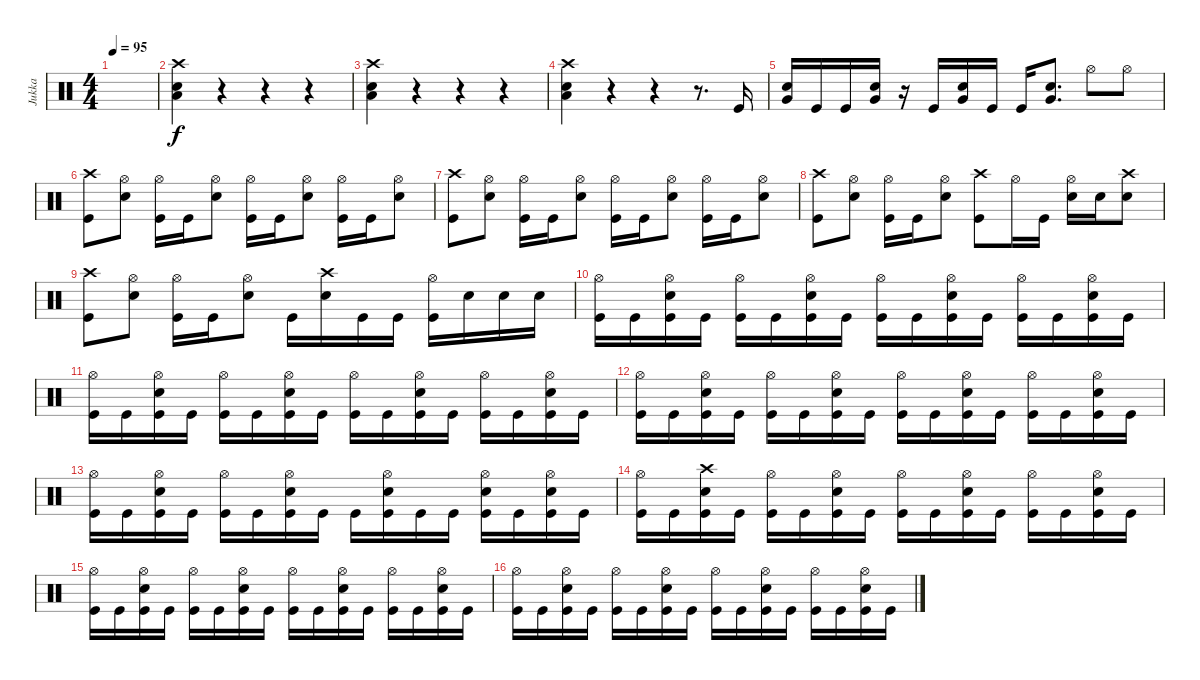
\track ("Jukka" "Jukka") {instrument percussion}
\staff {score}
\articulation defaults
\ts (4 4)
\tempo 95
\clef neutral
\ks c
|
("Crash high (hit)" "Low Floor Tom (hit)" "Electric Snare (hit)").4 r.4 r.4 r.4 |
("Crash high (hit)" "Low Floor Tom (hit)" "Electric Snare (hit)").4 r.4 r.4 r.4 |
("Crash high (hit)" "Low Floor Tom (hit)" "Electric Snare (hit)").4 r.4 r.4 r.8{d} "Kick (hit)".16 |
("Very Low Tom (hit)" "Electric Snare (hit)").16 "Kick (hit)".16 "Kick (hit)".16 ("Very Low Tom (hit)" "Electric Snare (hit)").16 r.16 "Kick (hit)".16 ("Very Low Tom (hit)" "Electric Snare (hit)").16 "Kick (hit)".16 "Kick (hit)".16 ("Very Low Tom (hit)" "Electric Snare (hit)").8{d} "Hi-Hat (open)".8 "Hi-Hat (open)".8 |
("Crash high (hit)" "Kick (hit)").8 ("Hi-Hat (open)" "Electric Snare (hit)").8 ("Hi-Hat (open)" "Kick (hit)").16 "Kick (hit)".16 ("Hi-Hat (open)" "Electric Snare (hit)").8 ("Hi-Hat (open)" "Kick (hit)").16 "Kick (hit)".16 ("Hi-Hat (open)" "Electric Snare (hit)").8 ("Hi-Hat (open)" "Kick (hit)").16 "Kick (hit)".16 ("Hi-Hat (open)" "Electric Snare (hit)").8 |
("Crash high (hit)" "Kick (hit)").8 ("Hi-Hat (open)" "Electric Snare (hit)").8 ("Hi-Hat (open)" "Kick (hit)").16 "Kick (hit)".16 ("Hi-Hat (open)" "Electric Snare (hit)").8 ("Hi-Hat (open)" "Kick (hit)").16 "Kick (hit)".16 ("Hi-Hat (open)" "Electric Snare (hit)").8 ("Hi-Hat (open)" "Kick (hit)").16 "Kick (hit)".16 ("Hi-Hat (open)" "Electric Snare (hit)").8 |
("Crash high (hit)" "Kick (hit)").8 ("Hi-Hat (open)" "Electric Snare (hit)").8 ("Hi-Hat (open)" "Kick (hit)").16 "Kick (hit)".16 ("Hi-Hat (open)" "Electric Snare (hit)").8 ("Crash high (hit)" "Kick (hit)").8 "Hi-Hat (open)".16 "Kick (hit)".16 ("Hi-Hat (open)" "Electric Snare (hit)").16 "Electric Snare (hit)".16 ("Crash high (hit)" "Electric Snare (hit)").8 |
("Crash high (hit)" "Kick (hit)").8 ("Hi-Hat (open)" "Electric Snare (hit)").8 ("Hi-Hat (open)" "Kick (hit)").16 "Kick (hit)".16 ("Hi-Hat (open)" "Electric Snare (hit)").8 "Kick (hit)".16 ("Crash high (hit)" "Electric Snare (hit)").16 "Kick (hit)".16 "Kick (hit)".16 ("Hi-Hat (open)" "Kick (hit)").16 "Electric Snare (hit)".16 "Electric Snare (hit)".16 "Electric Snare (hit)".16 |
("Hi-Hat (open)" "Kick (hit)").16 "Kick (hit)".16 ("Hi-Hat (open)" "Electric Snare (hit)" "Kick (hit)").16 "Kick (hit)".16 ("Hi-Hat (open)" "Kick (hit)").16 "Kick (hit)".16 ("Hi-Hat (open)" "Electric Snare (hit)" "Kick (hit)").16 "Kick (hit)".16 ("Hi-Hat (open)" "Kick (hit)").16 "Kick (hit)".16 ("Hi-Hat (open)" "Electric Snare (hit)" "Kick (hit)").16 "Kick (hit)".16 ("Hi-Hat (open)" "Kick (hit)").16 "Kick (hit)".16 ("Hi-Hat (open)" "Electric Snare (hit)" "Kick (hit)").16 "Kick (hit)".16 |
("Hi-Hat (open)" "Kick (hit)").16 "Kick (hit)".16 ("Hi-Hat (open)" "Electric Snare (hit)" "Kick (hit)").16 "Kick (hit)".16 ("Hi-Hat (open)" "Kick (hit)").16 "Kick (hit)".16 ("Hi-Hat (open)" "Electric Snare (hit)" "Kick (hit)").16 "Kick (hit)".16 ("Hi-Hat (open)" "Kick (hit)").16 "Kick (hit)".16 ("Hi-Hat (open)" "Electric Snare (hit)" "Kick (hit)").16 "Kick (hit)".16 ("Hi-Hat (open)" "Kick (hit)").16 "Kick (hit)".16 ("Hi-Hat (open)" "Electric Snare (hit)" "Kick (hit)").16 "Kick (hit)".16 |
("Hi-Hat (open)" "Kick (hit)").16 "Kick (hit)".16 ("Hi-Hat (open)" "Electric Snare (hit)" "Kick (hit)").16 "Kick (hit)".16 ("Hi-Hat (open)" "Kick (hit)").16 "Kick (hit)".16 ("Hi-Hat (open)" "Electric Snare (hit)" "Kick (hit)").16 "Kick (hit)".16 ("Hi-Hat (open)" "Kick (hit)").16 "Kick (hit)".16 ("Hi-Hat (open)" "Electric Snare (hit)" "Kick (hit)").16 "Kick (hit)".16 ("Hi-Hat (open)" "Kick (hit)").16 "Kick (hit)".16 ("Hi-Hat (open)" "Electric Snare (hit)" "Kick (hit)").16 "Kick (hit)".16 |
("Hi-Hat (open)" "Kick (hit)").16 "Kick (hit)".16 ("Hi-Hat (open)" "Electric Snare (hit)" "Kick (hit)").16 "Kick (hit)".16 ("Hi-Hat (open)" "Kick (hit)").16 "Kick (hit)".16 ("Hi-Hat (open)" "Electric Snare (hit)" "Kick (hit)").16 "Kick (hit)".16 "Kick (hit)".16 ("Hi-Hat (open)" "Electric Snare (hit)" "Kick (hit)").16 "Kick (hit)".16 "Kick (hit)".16 ("Hi-Hat (open)" "Electric Snare (hit)" "Kick (hit)").16 "Kick (hit)".16 ("Hi-Hat (open)" "Electric Snare (hit)" "Kick (hit)").16 "Kick (hit)".16 |
("Hi-Hat (open)" "Kick (hit)").16 "Kick (hit)".16 ("Crash high (hit)" "Electric Snare (hit)" "Kick (hit)").16 "Kick (hit)".16 ("Hi-Hat (open)" "Kick (hit)").16 "Kick (hit)".16 ("Hi-Hat (open)" "Electric Snare (hit)" "Kick (hit)").16 "Kick (hit)".16 ("Hi-Hat (open)" "Kick (hit)").16 "Kick (hit)".16 ("Hi-Hat (open)" "Electric Snare (hit)" "Kick (hit)").16 "Kick (hit)".16 ("Hi-Hat (open)" "Kick (hit)").16 "Kick (hit)".16 ("Hi-Hat (open)" "Electric Snare (hit)" "Kick (hit)").16 "Kick (hit)".16 |
("Hi-Hat (open)" "Kick (hit)").16 "Kick (hit)".16 ("Hi-Hat (open)" "Electric Snare (hit)" "Kick (hit)").16 "Kick (hit)".16 ("Hi-Hat (open)" "Kick (hit)").16 "Kick (hit)".16 ("Hi-Hat (open)" "Electric Snare (hit)" "Kick (hit)").16 "Kick (hit)".16 ("Hi-Hat (open)" "Kick (hit)").16 "Kick (hit)".16 ("Hi-Hat (open)" "Electric Snare (hit)" "Kick (hit)").16 "Kick (hit)".16 ("Hi-Hat (open)" "Kick (hit)").16 "Kick (hit)".16 ("Hi-Hat (open)" "Electric Snare (hit)" "Kick (hit)").16 "Kick (hit)".16 |
("Hi-Hat (open)" "Kick (hit)").16 "Kick (hit)".16 ("Hi-Hat (open)" "Electric Snare (hit)" "Kick (hit)").16 "Kick (hit)".16 ("Hi-Hat (open)" "Kick (hit)").16 "Kick (hit)".16 ("Hi-Hat (open)" "Electric Snare (hit)" "Kick (hit)").16 "Kick (hit)".16 ("Hi-Hat (open)" "Kick (hit)").16 "Kick (hit)".16 ("Hi-Hat (open)" "Electric Snare (hit)" "Kick (hit)").16 "Kick (hit)".16 ("Hi-Hat (open)" "Kick (hit)").16 "Kick (hit)".16 ("Hi-Hat (open)" "Electric Snare (hit)" "Kick (hit)").16 "Kick (hit)".16
